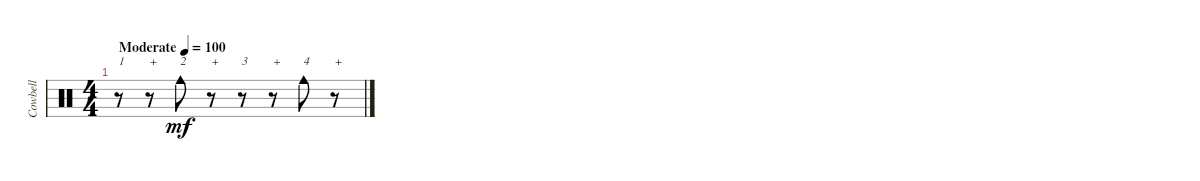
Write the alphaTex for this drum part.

\track ("Cowbell" "Cowbell") {instrument percussion}
\staff {score}
\articulation defaults
\ts (4 4)
\tempo (100 "Moderate")
\clef neutral
\ks c
r.8{txt "1" dy mf} r.8{txt "+"} "Cowbell medium (hit)".8{txt "2"} r.8{txt "+"} r.8{txt "3"} r.8{txt "+"} "Cowbell medium (hit)".8{txt "4"} r.8{txt "+"}
